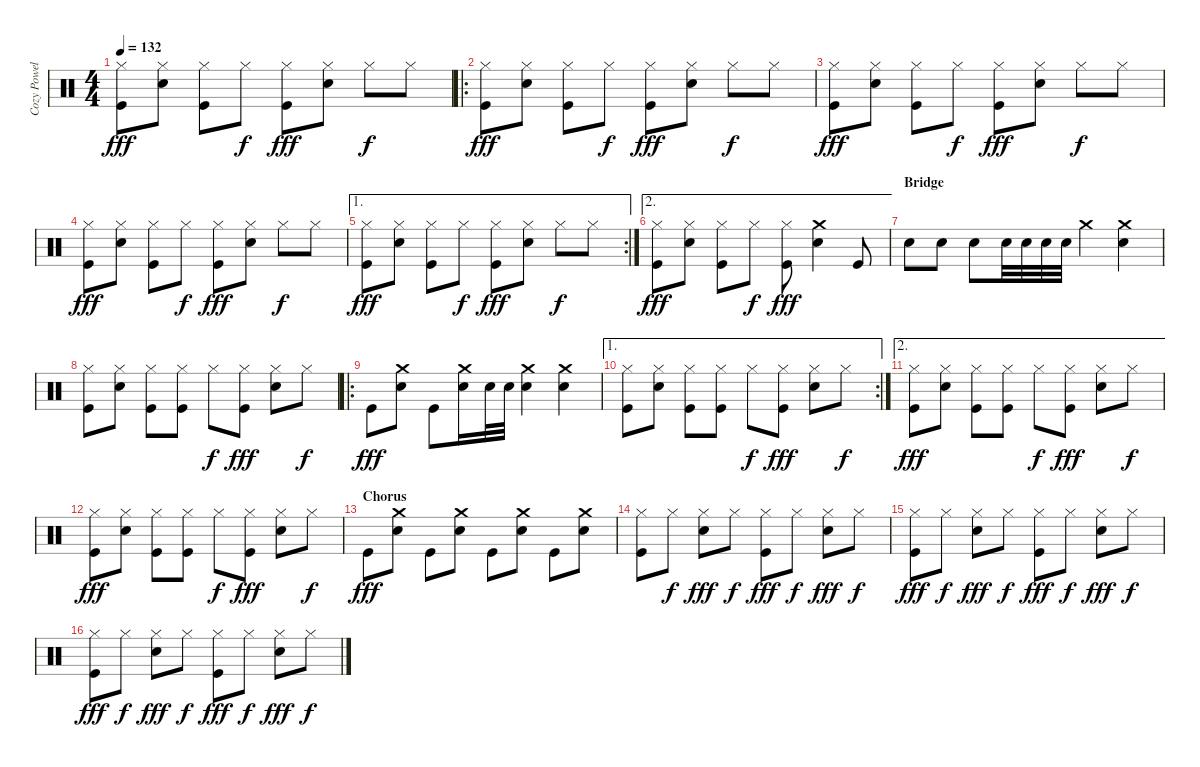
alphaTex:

\track ("Cozy Powell" "Cozy Powel") {instrument percussion}
\staff {score}
\articulation defaults
\ts (4 4)
\tempo 132
\clef neutral
\ks c
("Kick (hit)" "Hi-Hat (closed)").8{dy fff} ("Snare (hit) 2" "Hi-Hat (closed)").8 ("Kick (hit)" "Hi-Hat (closed)").8 "Hi-Hat (closed)".8{dy f} ("Kick (hit)" "Hi-Hat (closed)").8{dy fff} ("Snare (hit) 2" "Hi-Hat (closed)").8 "Hi-Hat (closed)".8{dy f} "Hi-Hat (closed)".8 |
\ro
("Kick (hit)" "Hi-Hat (closed)").8{dy fff} ("Snare (hit) 2" "Hi-Hat (closed)").8 ("Kick (hit)" "Hi-Hat (closed)").8 "Hi-Hat (closed)".8{dy f} ("Kick (hit)" "Hi-Hat (closed)").8{dy fff} ("Snare (hit) 2" "Hi-Hat (closed)").8 "Hi-Hat (closed)".8{dy f} "Hi-Hat (closed)".8 |
("Kick (hit)" "Hi-Hat (closed)").8{dy fff} ("Snare (hit) 2" "Hi-Hat (closed)").8 ("Kick (hit)" "Hi-Hat (closed)").8 "Hi-Hat (closed)".8{dy f} ("Kick (hit)" "Hi-Hat (closed)").8{dy fff} ("Snare (hit) 2" "Hi-Hat (closed)").8 "Hi-Hat (closed)".8{dy f} "Hi-Hat (closed)".8 |
("Kick (hit)" "Hi-Hat (closed)").8{dy fff} ("Snare (hit) 2" "Hi-Hat (closed)").8 ("Kick (hit)" "Hi-Hat (closed)").8 "Hi-Hat (closed)".8{dy f} ("Kick (hit)" "Hi-Hat (closed)").8{dy fff} ("Snare (hit) 2" "Hi-Hat (closed)").8 "Hi-Hat (closed)".8{dy f} "Hi-Hat (closed)".8 |
\ae 1
\rc 2
("Kick (hit)" "Hi-Hat (closed)").8{dy fff} ("Snare (hit) 2" "Hi-Hat (closed)").8 ("Kick (hit)" "Hi-Hat (closed)").8 "Hi-Hat (closed)".8{dy f} ("Kick (hit)" "Hi-Hat (closed)").8{dy fff} ("Snare (hit) 2" "Hi-Hat (closed)").8 "Hi-Hat (closed)".8{dy f} "Hi-Hat (closed)".8 |
\ae 2
("Kick (hit)" "Hi-Hat (closed)").8{dy fff} ("Snare (hit) 2" "Hi-Hat (closed)").8 ("Kick (hit)" "Hi-Hat (closed)").8 "Hi-Hat (closed)".8{dy f} ("Kick (hit)" "Hi-Hat (closed)").8{dy fff} ("Snare (hit) 2" "Crash medium (hit)").4 "Kick (hit)".8 |
\section ("" "Bridge")
"Snare (hit) 2".8 "Snare (hit) 2".8 "Snare (hit) 2".8 "Snare (hit) 2".32 "Snare (hit) 2".32 "Snare (hit) 2".32 "Snare (hit) 2".32 "Crash medium (hit)".4 ("Snare (hit) 2" "Crash medium (hit)").4 |
("Kick (hit)" "Hi-Hat (closed)").8 ("Snare (hit) 2" "Hi-Hat (closed)").8 ("Kick (hit)" "Hi-Hat (closed)").8 ("Kick (hit)" "Hi-Hat (closed)").8 "Hi-Hat (closed)".8{dy f} ("Kick (hit)" "Hi-Hat (closed)").8{dy fff} ("Snare (hit) 2" "Hi-Hat (closed)").8 "Hi-Hat (closed)".8{dy f} |
\ro "Kick (hit)".8{dy fff}
("Snare (hit) 2" "Crash medium (hit)").8 "Kick (hit)".8 ("Snare (hit) 2" "Crash medium (hit)").16 "Snare (hit) 2".32 "Snare (hit) 2".32 ("Snare (hit) 2" "Crash medium (hit)").4 ("Snare (hit) 2" "Crash medium (hit)").4 |
\ae 1
\rc 2
("Kick (hit)" "Hi-Hat (closed)").8 ("Snare (hit) 2" "Hi-Hat (closed)").8 ("Kick (hit)" "Hi-Hat (closed)").8 ("Kick (hit)" "Hi-Hat (closed)").8 "Hi-Hat (closed)".8{dy f} ("Kick (hit)" "Hi-Hat (closed)").8{dy fff} ("Snare (hit) 2" "Hi-Hat (closed)").8 "Hi-Hat (closed)".8{dy f} |
\ae 2
("Kick (hit)" "Hi-Hat (closed)").8{dy fff} ("Snare (hit) 2" "Hi-Hat (closed)").8 ("Kick (hit)" "Hi-Hat (closed)").8 ("Kick (hit)" "Hi-Hat (closed)").8 "Hi-Hat (closed)".8{dy f} ("Kick (hit)" "Hi-Hat (closed)").8{dy fff} ("Snare (hit) 2" "Hi-Hat (closed)").8 "Hi-Hat (closed)".8{dy f} |
("Kick (hit)" "Hi-Hat (closed)").8{dy fff} ("Snare (hit) 2" "Hi-Hat (closed)").8 ("Kick (hit)" "Hi-Hat (closed)").8 ("Kick (hit)" "Hi-Hat (closed)").8 "Hi-Hat (closed)".8{dy f} ("Kick (hit)" "Hi-Hat (closed)").8{dy fff} ("Snare (hit) 2" "Hi-Hat (closed)").8 "Hi-Hat (closed)".8{dy f} |
\section ("" "Chorus")
"Kick (hit)".8{dy fff} ("Snare (hit) 2" "Crash medium (hit)").8 "Kick (hit)".8 ("Snare (hit) 2" "Crash medium (hit)").8 "Kick (hit)".8 ("Snare (hit) 2" "Crash medium (hit)").8 "Kick (hit)".8 ("Snare (hit) 2" "Crash medium (hit)").8 |
("Kick (hit)" "Hi-Hat (closed)").8 "Hi-Hat (closed)".8{dy f} ("Snare (hit) 2" "Hi-Hat (closed)").8{dy fff} "Hi-Hat (closed)".8{dy f} ("Kick (hit)" "Hi-Hat (closed)").8{dy fff} "Hi-Hat (closed)".8{dy f} ("Snare (hit) 2" "Hi-Hat (closed)").8{dy fff} "Hi-Hat (closed)".8{dy f} |
("Kick (hit)" "Hi-Hat (closed)").8{dy fff} "Hi-Hat (closed)".8{dy f} ("Snare (hit) 2" "Hi-Hat (closed)").8{dy fff} "Hi-Hat (closed)".8{dy f} ("Kick (hit)" "Hi-Hat (closed)").8{dy fff} "Hi-Hat (closed)".8{dy f} ("Snare (hit) 2" "Hi-Hat (closed)").8{dy fff} "Hi-Hat (closed)".8{dy f} |
("Kick (hit)" "Hi-Hat (closed)").8{dy fff} "Hi-Hat (closed)".8{dy f} ("Snare (hit) 2" "Hi-Hat (closed)").8{dy fff} "Hi-Hat (closed)".8{dy f} ("Kick (hit)" "Hi-Hat (closed)").8{dy fff} "Hi-Hat (closed)".8{dy f} ("Snare (hit) 2" "Hi-Hat (closed)").8{dy fff} "Hi-Hat (closed)".8{dy f}
